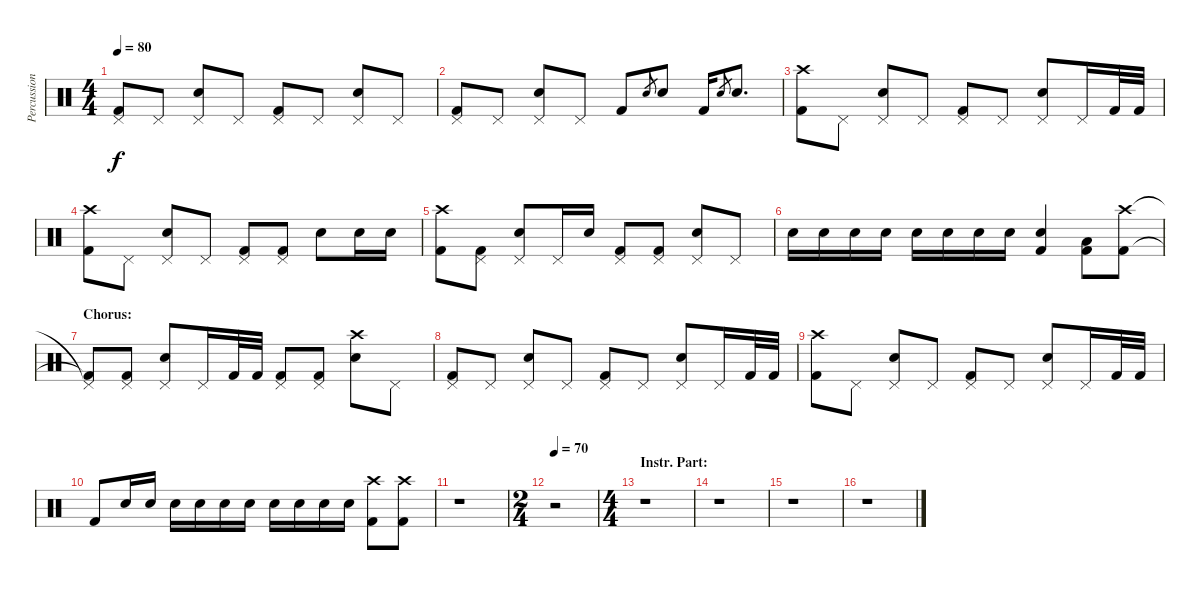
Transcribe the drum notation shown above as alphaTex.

\track ("Percussion" "Percussion") {instrument percussion}
\staff {score}
\articulation defaults
\ts (4 4)
\tempo 80
\clef neutral
\ks c
("Pedal Hi-Hat (hit)" "Kick (hit) 2").8{dy f} "Pedal Hi-Hat (hit)".8 ("Pedal Hi-Hat (hit)" "Electric Snare (hit)").8 "Pedal Hi-Hat (hit)".8 ("Pedal Hi-Hat (hit)" "Kick (hit) 2").8 "Pedal Hi-Hat (hit)".8 ("Pedal Hi-Hat (hit)" "Electric Snare (hit)").8 "Pedal Hi-Hat (hit)".8 |
("Pedal Hi-Hat (hit)" "Kick (hit) 2").8 "Pedal Hi-Hat (hit)".8 ("Pedal Hi-Hat (hit)" "Electric Snare (hit)").8 "Pedal Hi-Hat (hit)".8 "Kick (hit) 2".8 "Electric Snare (hit)".8{gr} "Electric Snare (hit)".8 "Kick (hit) 2".16 "Electric Snare (hit)".8{gr} "Electric Snare (hit)".8{d} |
("Crash high (hit)" "Kick (hit) 2").8 "Pedal Hi-Hat (hit)".8 ("Pedal Hi-Hat (hit)" "Electric Snare (hit)").8 "Pedal Hi-Hat (hit)".8 ("Pedal Hi-Hat (hit)" "Kick (hit) 2").8 "Pedal Hi-Hat (hit)".8 ("Pedal Hi-Hat (hit)" "Electric Snare (hit)").8 "Pedal Hi-Hat (hit)".16 "Kick (hit) 2".32 "Kick (hit) 2".32 |
("Crash high (hit)" "Kick (hit) 2").8 "Pedal Hi-Hat (hit)".8 ("Pedal Hi-Hat (hit)" "Electric Snare (hit)").8 "Pedal Hi-Hat (hit)".8 ("Pedal Hi-Hat (hit)" "Kick (hit) 2").8 ("Pedal Hi-Hat (hit)" "Kick (hit) 2").8 "Electric Snare (hit)".8 "Electric Snare (hit)".16 "Electric Snare (hit)".16 |
("Crash high (hit)" "Kick (hit) 2").8 ("Pedal Hi-Hat (hit)" "Kick (hit) 2").8 ("Pedal Hi-Hat (hit)" "Electric Snare (hit)").8 "Pedal Hi-Hat (hit)".16 "Electric Snare (hit)".16 ("Pedal Hi-Hat (hit)" "Kick (hit) 2").8 ("Pedal Hi-Hat (hit)" "Kick (hit) 2").8 ("Pedal Hi-Hat (hit)" "Electric Snare (hit)").8 "Pedal Hi-Hat (hit)".8 |
"Electric Snare (hit)".16 "Electric Snare (hit)".16 "Electric Snare (hit)".16 "Electric Snare (hit)".16 "Electric Snare (hit)".16 "Electric Snare (hit)".16 "Electric Snare (hit)".16 "Electric Snare (hit)".16 ("Electric Snare (hit)" "Kick (hit) 2").4 ("Low Tom (hit)" "Kick (hit) 2").8 ("Crash high (hit)" "Kick (hit) 2").8 |
\section ("" "Chorus:")
("Pedal Hi-Hat (hit)"{t} "Kick (hit) 2"{t}).8 ("Pedal Hi-Hat (hit)" "Kick (hit) 2").8 ("Pedal Hi-Hat (hit)" "Electric Snare (hit)").8 "Pedal Hi-Hat (hit)".16 "Kick (hit) 2".32 "Kick (hit) 2".32 ("Pedal Hi-Hat (hit)" "Kick (hit) 2").8 ("Pedal Hi-Hat (hit)" "Kick (hit) 2").8 ("Crash high (hit)" "Electric Snare (hit)").8 "Pedal Hi-Hat (hit)".8 |
("Pedal Hi-Hat (hit)" "Kick (hit) 2").8 "Pedal Hi-Hat (hit)".8 ("Pedal Hi-Hat (hit)" "Electric Snare (hit)").8 "Pedal Hi-Hat (hit)".8 ("Pedal Hi-Hat (hit)" "Kick (hit) 2").8 "Pedal Hi-Hat (hit)".8 ("Pedal Hi-Hat (hit)" "Electric Snare (hit)").8 "Pedal Hi-Hat (hit)".16 "Kick (hit) 2".32 "Kick (hit) 2".32 |
("Crash high (hit)" "Kick (hit) 2").8 "Pedal Hi-Hat (hit)".8 ("Pedal Hi-Hat (hit)" "Electric Snare (hit)").8 "Pedal Hi-Hat (hit)".8 ("Pedal Hi-Hat (hit)" "Kick (hit) 2").8 "Pedal Hi-Hat (hit)".8 ("Pedal Hi-Hat (hit)" "Electric Snare (hit)").8 "Pedal Hi-Hat (hit)".16 "Kick (hit) 2".32 "Kick (hit) 2".32 |
"Kick (hit) 2".8 "Electric Snare (hit)".16 "Electric Snare (hit)".16 "Electric Snare (hit)".16 "Electric Snare (hit)".16 "Electric Snare (hit)".16 "Electric Snare (hit)".16 "Electric Snare (hit)".16 "Electric Snare (hit)".16 "Electric Snare (hit)".16 "Electric Snare (hit)".16 ("Crash high (hit)" "Kick (hit) 2").8 ("Crash high (hit)" "Kick (hit) 2").8 |
r.1 |
\ts (2 4)
\tempo 70
r.2 |
\ts (4 4)
\section ("" "Instr. Part:")
r.1 |
r.1 |
r.1 |
r.1
